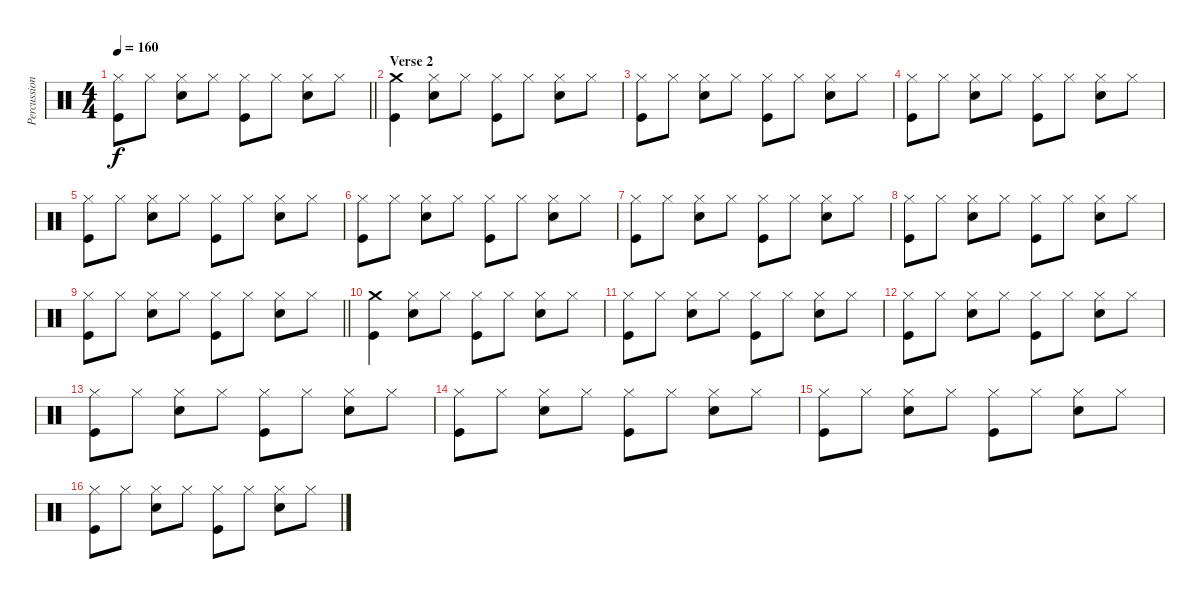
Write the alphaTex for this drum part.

\track ("Percussion" "Percussion") {instrument percussion}
\staff {score}
\articulation defaults
\ts (4 4)
\tempo 160
\clef neutral
\barLineRight lightlight
\ks c
("Kick (hit)" "Hi-Hat (closed)").8{dy f} "Hi-Hat (closed)".8 ("Hi-Hat (closed)" "Snare (hit) 2").8 "Hi-Hat (closed)".8 ("Kick (hit)" "Hi-Hat (closed)").8 "Hi-Hat (closed)".8 ("Hi-Hat (closed)" "Snare (hit) 2").8 "Hi-Hat (closed)".8 |
\section ("" "Verse 2")
("Kick (hit)" "Crash medium (hit)").4 ("Hi-Hat (closed)" "Snare (hit) 2").8 "Hi-Hat (closed)".8 ("Kick (hit)" "Hi-Hat (closed)").8 "Hi-Hat (closed)".8 ("Hi-Hat (closed)" "Snare (hit) 2").8 "Hi-Hat (closed)".8 |
("Kick (hit)" "Hi-Hat (closed)").8 "Hi-Hat (closed)".8 ("Hi-Hat (closed)" "Snare (hit) 2").8 "Hi-Hat (closed)".8 ("Kick (hit)" "Hi-Hat (closed)").8 "Hi-Hat (closed)".8 ("Hi-Hat (closed)" "Snare (hit) 2").8 "Hi-Hat (closed)".8 |
("Kick (hit)" "Hi-Hat (closed)").8 "Hi-Hat (closed)".8 ("Hi-Hat (closed)" "Snare (hit) 2").8 "Hi-Hat (closed)".8 ("Kick (hit)" "Hi-Hat (closed)").8 "Hi-Hat (closed)".8 ("Hi-Hat (closed)" "Snare (hit) 2").8 "Hi-Hat (closed)".8 |
("Kick (hit)" "Hi-Hat (closed)").8 "Hi-Hat (closed)".8 ("Hi-Hat (closed)" "Snare (hit) 2").8 "Hi-Hat (closed)".8 ("Kick (hit)" "Hi-Hat (closed)").8 "Hi-Hat (closed)".8 ("Hi-Hat (closed)" "Snare (hit) 2").8 "Hi-Hat (closed)".8 |
("Kick (hit)" "Hi-Hat (closed)").8 "Hi-Hat (closed)".8 ("Hi-Hat (closed)" "Snare (hit) 2").8 "Hi-Hat (closed)".8 ("Kick (hit)" "Hi-Hat (closed)").8 "Hi-Hat (closed)".8 ("Hi-Hat (closed)" "Snare (hit) 2").8 "Hi-Hat (closed)".8 |
("Kick (hit)" "Hi-Hat (closed)").8 "Hi-Hat (closed)".8 ("Hi-Hat (closed)" "Snare (hit) 2").8 "Hi-Hat (closed)".8 ("Kick (hit)" "Hi-Hat (closed)").8 "Hi-Hat (closed)".8 ("Hi-Hat (closed)" "Snare (hit) 2").8 "Hi-Hat (closed)".8 |
("Kick (hit)" "Hi-Hat (closed)").8 "Hi-Hat (closed)".8 ("Hi-Hat (closed)" "Snare (hit) 2").8 "Hi-Hat (closed)".8 ("Kick (hit)" "Hi-Hat (closed)").8 "Hi-Hat (closed)".8 ("Hi-Hat (closed)" "Snare (hit) 2").8 "Hi-Hat (closed)".8 |
\barLineRight lightlight
("Kick (hit)" "Hi-Hat (closed)").8 "Hi-Hat (closed)".8 ("Hi-Hat (closed)" "Snare (hit) 2").8 "Hi-Hat (closed)".8 ("Kick (hit)" "Hi-Hat (closed)").8 "Hi-Hat (closed)".8 ("Hi-Hat (closed)" "Snare (hit) 2").8 "Hi-Hat (closed)".8 |
("Kick (hit)" "Crash medium (hit)").4 ("Hi-Hat (closed)" "Snare (hit) 2").8 "Hi-Hat (closed)".8 ("Kick (hit)" "Hi-Hat (closed)").8 "Hi-Hat (closed)".8 ("Hi-Hat (closed)" "Snare (hit) 2").8 "Hi-Hat (closed)".8 |
("Kick (hit)" "Hi-Hat (closed)").8 "Hi-Hat (closed)".8 ("Hi-Hat (closed)" "Snare (hit) 2").8 "Hi-Hat (closed)".8 ("Kick (hit)" "Hi-Hat (closed)").8 "Hi-Hat (closed)".8 ("Hi-Hat (closed)" "Snare (hit) 2").8 "Hi-Hat (closed)".8 |
("Kick (hit)" "Hi-Hat (closed)").8 "Hi-Hat (closed)".8 ("Hi-Hat (closed)" "Snare (hit) 2").8 "Hi-Hat (closed)".8 ("Kick (hit)" "Hi-Hat (closed)").8 "Hi-Hat (closed)".8 ("Hi-Hat (closed)" "Snare (hit) 2").8 "Hi-Hat (closed)".8 |
("Kick (hit)" "Hi-Hat (closed)").8 "Hi-Hat (closed)".8 ("Hi-Hat (closed)" "Snare (hit) 2").8 "Hi-Hat (closed)".8 ("Kick (hit)" "Hi-Hat (closed)").8 "Hi-Hat (closed)".8 ("Hi-Hat (closed)" "Snare (hit) 2").8 "Hi-Hat (closed)".8 |
("Kick (hit)" "Hi-Hat (closed)").8 "Hi-Hat (closed)".8 ("Hi-Hat (closed)" "Snare (hit) 2").8 "Hi-Hat (closed)".8 ("Kick (hit)" "Hi-Hat (closed)").8 "Hi-Hat (closed)".8 ("Hi-Hat (closed)" "Snare (hit) 2").8 "Hi-Hat (closed)".8 |
("Kick (hit)" "Hi-Hat (closed)").8 "Hi-Hat (closed)".8 ("Hi-Hat (closed)" "Snare (hit) 2").8 "Hi-Hat (closed)".8 ("Kick (hit)" "Hi-Hat (closed)").8 "Hi-Hat (closed)".8 ("Hi-Hat (closed)" "Snare (hit) 2").8 "Hi-Hat (closed)".8 |
("Kick (hit)" "Hi-Hat (closed)").8 "Hi-Hat (closed)".8 ("Hi-Hat (closed)" "Snare (hit) 2").8 "Hi-Hat (closed)".8 ("Kick (hit)" "Hi-Hat (closed)").8 "Hi-Hat (closed)".8 ("Hi-Hat (closed)" "Snare (hit) 2").8 "Hi-Hat (closed)".8
